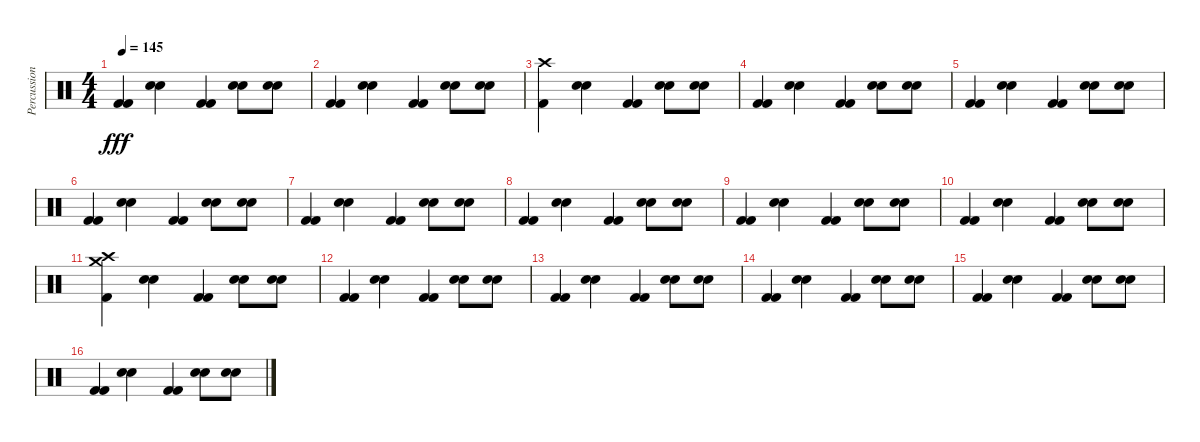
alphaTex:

\track ("Percussion ( Keyboard )" "Percussion") {instrument percussion bank 4}
\staff {score}
\articulation defaults
\ts (4 4)
\tempo 145
\clef neutral
\ks c
("Kick (hit) 2" "Kick (hit) 2").4{dy fff} ("Electric Snare (hit)" "Hand Clap (hit)").4 ("Kick (hit) 2" "Kick (hit) 2").4 ("Electric Snare (hit)" "Hand Clap (hit)").8 ("Electric Snare (hit)" "Hand Clap (hit)").8 |
("Kick (hit) 2" "Kick (hit) 2").4 ("Electric Snare (hit)" "Hand Clap (hit)").4 ("Kick (hit) 2" "Kick (hit) 2").4 ("Electric Snare (hit)" "Hand Clap (hit)").8 ("Electric Snare (hit)" "Hand Clap (hit)").8 |
("Crash high (hit)" "Kick (hit) 2").4 ("Electric Snare (hit)" "Hand Clap (hit)").4 ("Kick (hit) 2" "Kick (hit) 2").4 ("Electric Snare (hit)" "Hand Clap (hit)").8 ("Electric Snare (hit)" "Hand Clap (hit)").8 |
("Kick (hit) 2" "Kick (hit) 2").4 ("Electric Snare (hit)" "Hand Clap (hit)").4 ("Kick (hit) 2" "Kick (hit) 2").4 ("Electric Snare (hit)" "Hand Clap (hit)").8 ("Electric Snare (hit)" "Hand Clap (hit)").8 |
("Kick (hit) 2" "Kick (hit) 2").4 ("Electric Snare (hit)" "Hand Clap (hit)").4 ("Kick (hit) 2" "Kick (hit) 2").4 ("Electric Snare (hit)" "Hand Clap (hit)").8 ("Electric Snare (hit)" "Hand Clap (hit)").8 |
("Kick (hit) 2" "Kick (hit) 2").4 ("Electric Snare (hit)" "Hand Clap (hit)").4 ("Kick (hit) 2" "Kick (hit) 2").4 ("Electric Snare (hit)" "Hand Clap (hit)").8 ("Electric Snare (hit)" "Hand Clap (hit)").8 |
("Kick (hit) 2" "Kick (hit) 2").4 ("Electric Snare (hit)" "Hand Clap (hit)").4 ("Kick (hit) 2" "Kick (hit) 2").4 ("Electric Snare (hit)" "Hand Clap (hit)").8 ("Electric Snare (hit)" "Hand Clap (hit)").8 |
("Kick (hit) 2" "Kick (hit) 2").4 ("Electric Snare (hit)" "Hand Clap (hit)").4 ("Kick (hit) 2" "Kick (hit) 2").4 ("Electric Snare (hit)" "Hand Clap (hit)").8 ("Electric Snare (hit)" "Hand Clap (hit)").8 |
("Kick (hit) 2" "Kick (hit) 2").4 ("Electric Snare (hit)" "Hand Clap (hit)").4 ("Kick (hit) 2" "Kick (hit) 2").4 ("Electric Snare (hit)" "Hand Clap (hit)").8 ("Electric Snare (hit)" "Hand Clap (hit)").8 |
("Kick (hit) 2" "Kick (hit) 2").4 ("Electric Snare (hit)" "Hand Clap (hit)").4 ("Kick (hit) 2" "Kick (hit) 2").4 ("Electric Snare (hit)" "Hand Clap (hit)").8 ("Electric Snare (hit)" "Hand Clap (hit)").8 |
("Crash high (hit)" "Crash medium (hit)" "Kick (hit) 2").4 ("Electric Snare (hit)" "Hand Clap (hit)").4 ("Kick (hit) 2" "Kick (hit) 2").4 ("Electric Snare (hit)" "Hand Clap (hit)").8 ("Electric Snare (hit)" "Hand Clap (hit)").8 |
("Kick (hit) 2" "Kick (hit) 2").4 ("Electric Snare (hit)" "Hand Clap (hit)").4 ("Kick (hit) 2" "Kick (hit) 2").4 ("Electric Snare (hit)" "Hand Clap (hit)").8 ("Electric Snare (hit)" "Hand Clap (hit)").8 |
("Kick (hit) 2" "Kick (hit) 2").4 ("Electric Snare (hit)" "Hand Clap (hit)").4 ("Kick (hit) 2" "Kick (hit) 2").4 ("Electric Snare (hit)" "Hand Clap (hit)").8 ("Electric Snare (hit)" "Hand Clap (hit)").8 |
("Kick (hit) 2" "Kick (hit) 2").4 ("Electric Snare (hit)" "Hand Clap (hit)").4 ("Kick (hit) 2" "Kick (hit) 2").4 ("Electric Snare (hit)" "Hand Clap (hit)").8 ("Electric Snare (hit)" "Hand Clap (hit)").8 |
("Kick (hit) 2" "Kick (hit) 2").4 ("Electric Snare (hit)" "Hand Clap (hit)").4 ("Kick (hit) 2" "Kick (hit) 2").4 ("Electric Snare (hit)" "Hand Clap (hit)").8 ("Electric Snare (hit)" "Hand Clap (hit)").8 |
("Kick (hit) 2" "Kick (hit) 2").4 ("Electric Snare (hit)" "Hand Clap (hit)").4 ("Kick (hit) 2" "Kick (hit) 2").4 ("Electric Snare (hit)" "Hand Clap (hit)").8 ("Electric Snare (hit)" "Hand Clap (hit)").8
